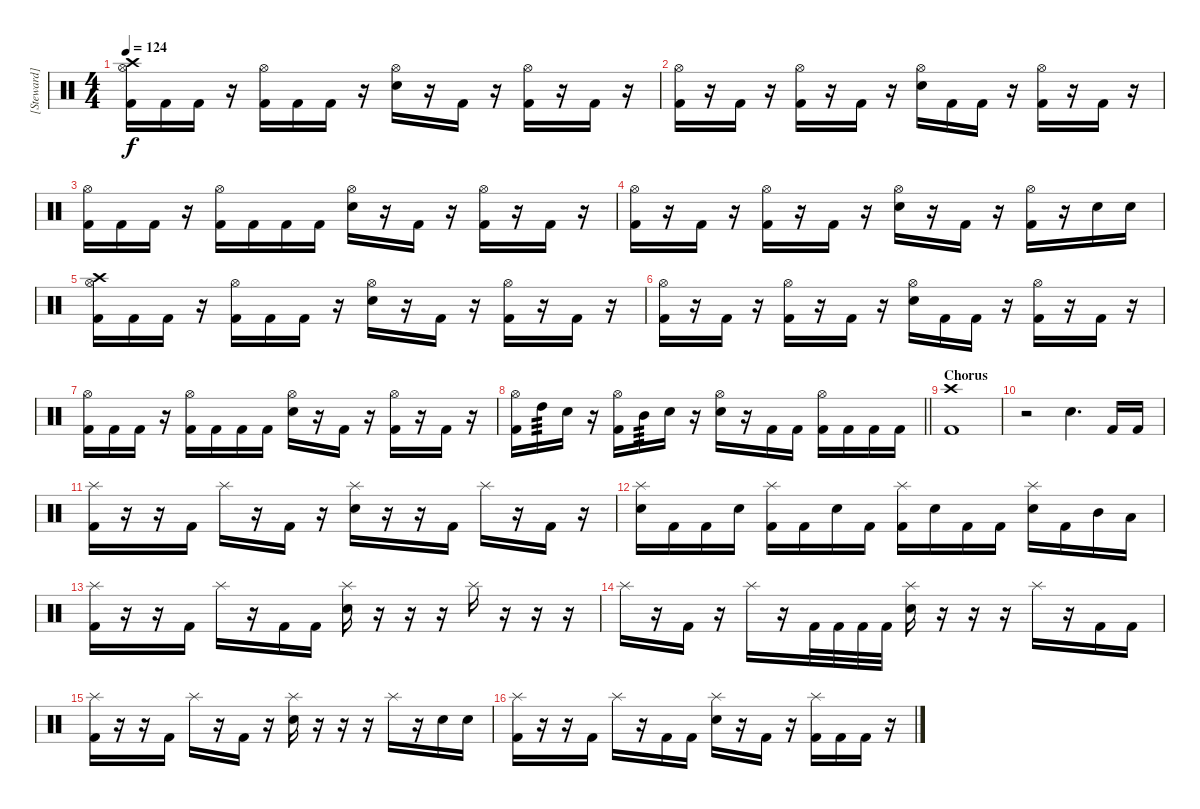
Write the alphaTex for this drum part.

\track ("[Steward]" "[Steward]") {solo instrument percussion}
\staff {score}
\articulation defaults
\ts (4 4)
\tempo 124
\clef neutral
\ks c
("Crash high (hit)" "Kick (hit) 2" "Hi-Hat (open)").16{dy f} "Kick (hit) 2".16 "Kick (hit) 2".16 r.16 ("Kick (hit) 2" "Hi-Hat (open)").16 "Kick (hit) 2".16 "Kick (hit) 2".16 r.16 ("Electric Snare (hit)" "Hi-Hat (open)").16 r.16 "Kick (hit) 2".16 r.16 ("Kick (hit) 2" "Hi-Hat (open)").16 r.16 "Kick (hit) 2".16 r.16 |
("Kick (hit) 2" "Hi-Hat (open)").16 r.16 "Kick (hit) 2".16 r.16 ("Kick (hit) 2" "Hi-Hat (open)").16 r.16 "Kick (hit) 2".16 r.16 ("Electric Snare (hit)" "Hi-Hat (open)").16 "Kick (hit) 2".16 "Kick (hit) 2".16 r.16 ("Kick (hit) 2" "Hi-Hat (open)").16 r.16 "Kick (hit) 2".16 r.16 |
("Kick (hit) 2" "Hi-Hat (open)").16 "Kick (hit) 2".16 "Kick (hit) 2".16 r.16 ("Kick (hit) 2" "Hi-Hat (open)").16 "Kick (hit) 2".16 "Kick (hit) 2".16 "Kick (hit) 2".16 ("Electric Snare (hit)" "Hi-Hat (open)").16 r.16 "Kick (hit) 2".16 r.16 ("Kick (hit) 2" "Hi-Hat (open)").16 r.16 "Kick (hit) 2".16 r.16 |
("Kick (hit) 2" "Hi-Hat (open)").16 r.16 "Kick (hit) 2".16 r.16 ("Kick (hit) 2" "Hi-Hat (open)").16 r.16 "Kick (hit) 2".16 r.16 ("Electric Snare (hit)" "Hi-Hat (open)").16 r.16 "Kick (hit) 2".16 r.16 ("Kick (hit) 2" "Hi-Hat (open)").16 r.16 "Electric Snare (hit)".16 "Electric Snare (hit)".16 |
("Crash high (hit)" "Kick (hit) 2" "Hi-Hat (open)").16 "Kick (hit) 2".16 "Kick (hit) 2".16 r.16 ("Kick (hit) 2" "Hi-Hat (open)").16 "Kick (hit) 2".16 "Kick (hit) 2".16 r.16 ("Electric Snare (hit)" "Hi-Hat (open)").16 r.16 "Kick (hit) 2".16 r.16 ("Kick (hit) 2" "Hi-Hat (open)").16 r.16 "Kick (hit) 2".16 r.16 |
("Kick (hit) 2" "Hi-Hat (open)").16 r.16 "Kick (hit) 2".16 r.16 ("Kick (hit) 2" "Hi-Hat (open)").16 r.16 "Kick (hit) 2".16 r.16 ("Electric Snare (hit)" "Hi-Hat (open)").16 "Kick (hit) 2".16 "Kick (hit) 2".16 r.16 ("Kick (hit) 2" "Hi-Hat (open)").16 r.16 "Kick (hit) 2".16 r.16 |
("Kick (hit) 2" "Hi-Hat (open)").16 "Kick (hit) 2".16 "Kick (hit) 2".16 r.16 ("Kick (hit) 2" "Hi-Hat (open)").16 "Kick (hit) 2".16 "Kick (hit) 2".16 "Kick (hit) 2".16 ("Electric Snare (hit)" "Hi-Hat (open)").16 r.16 "Kick (hit) 2".16 r.16 ("Kick (hit) 2" "Hi-Hat (open)").16 r.16 "Kick (hit) 2".16 r.16 |
\barLineRight lightlight
("Kick (hit) 2" "Hi-Hat (open)").16 "High Tom (hit)".16{tp 3} "Electric Snare (hit)".16 r.16 ("Kick (hit) 2" "Hi-Hat (open)").16 "Mid Tom (hit)".16{tp 3} "Electric Snare (hit)".16 r.16 ("Electric Snare (hit)" "Hi-Hat (open)").16 r.16 "Kick (hit) 2".16 "Kick (hit) 2".16 ("Kick (hit) 2" "Hi-Hat (open)").16 "Kick (hit) 2".16 "Kick (hit) 2".16 "Kick (hit) 2".16 |
\section ("" "Chorus")
("Crash high (hit)" "Kick (hit) 2").1 |
r.2 "Electric Snare (hit)".4{d} "Kick (hit) 2".16 "Kick (hit) 2".16 |
("Kick (hit) 2" "Splash (hit)").16 r.16 r.16 "Kick (hit) 2".16 "Splash (hit)".16 r.16 "Kick (hit) 2".16 r.16 ("Electric Snare (hit)" "Splash (hit)").16 r.16 r.16 "Kick (hit) 2".16 "Splash (hit)".16 r.16 "Kick (hit) 2".16 r.16 |
("Electric Snare (hit)" "Splash (hit)").16 "Kick (hit) 2".16 "Kick (hit) 2".16 "Electric Snare (hit)".16 ("Kick (hit) 2" "Splash (hit)").16 "Kick (hit) 2".16 "Electric Snare (hit)".16 "Kick (hit) 2".16 ("Kick (hit) 2" "Splash (hit)").16 "Electric Snare (hit)".16 "Kick (hit) 2".16 "Kick (hit) 2".16 ("Electric Snare (hit)" "Splash (hit)").16 "Kick (hit) 2".16 "Mid Tom (hit)".16 "Low Tom (hit)".16 |
("Kick (hit) 2" "Splash (hit)").16 r.16 r.16 "Kick (hit) 2".16 "Splash (hit)".16 r.16 "Kick (hit) 2".16 "Kick (hit) 2".16 ("Electric Snare (hit)" "Splash (hit)").16 r.16 r.16 r.16 "Splash (hit)".16 r.16 r.16 r.16 |
"Splash (hit)".16 r.16 "Kick (hit) 2".16 r.16 "Splash (hit)".16 r.16 "Kick (hit) 2".32 "Kick (hit) 2".32 "Kick (hit) 2".32 "Kick (hit) 2".32 ("Electric Snare (hit)" "Splash (hit)").16 r.16 r.16 r.16 "Splash (hit)".16 r.16 "Kick (hit) 2".16 "Kick (hit) 2".16 |
("Kick (hit) 2" "Splash (hit)").16 r.16 r.16 "Kick (hit) 2".16 "Splash (hit)".16 r.16 "Kick (hit) 2".16 r.16 ("Electric Snare (hit)" "Splash (hit)").16 r.16 r.16 r.16 "Splash (hit)".16 r.16 "Electric Snare (hit)".16 "Electric Snare (hit)".16 |
("Kick (hit) 2" "Splash (hit)").16 r.16 r.16 "Kick (hit) 2".16 "Splash (hit)".16 r.16 "Kick (hit) 2".16 "Kick (hit) 2".16 ("Electric Snare (hit)" "Splash (hit)").16 r.16 "Kick (hit) 2".16 r.16 ("Kick (hit) 2" "Splash (hit)").16 "Kick (hit) 2".16 "Kick (hit) 2".16 r.16
